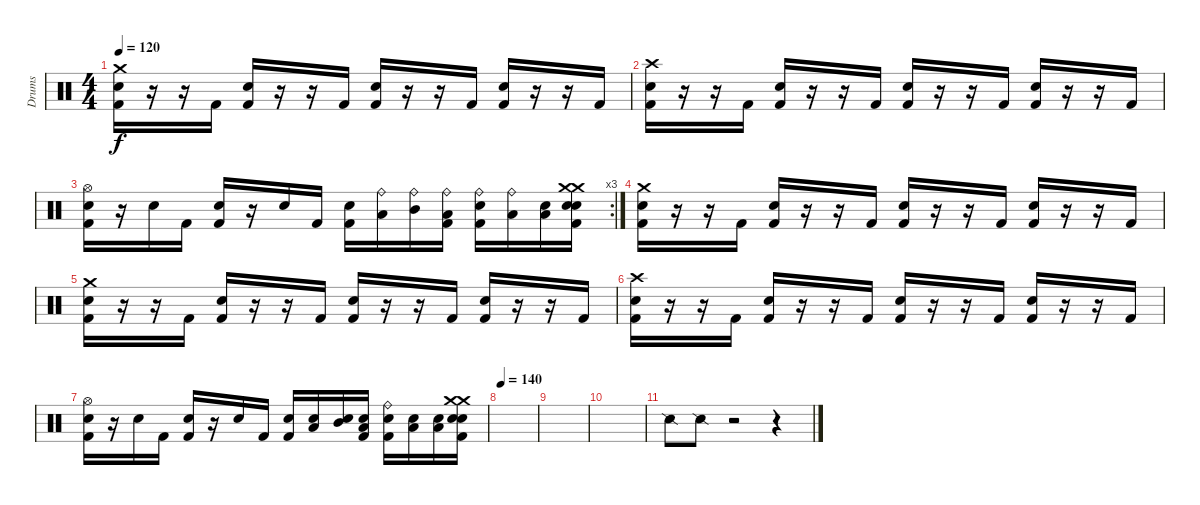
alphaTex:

\track ("Drums" "Drums") {instrument percussion}
\staff {score}
\articulation defaults
\ts (4 4)
\tempo 120
\clef neutral
\ks c
("Crash medium (hit)" "Electric Snare (hit)" "Kick (hit) 2").16{dy f} r.16 r.16 "Kick (hit) 2".16 ("Electric Snare (hit)" "Kick (hit) 2").16 r.16 r.16 "Kick (hit) 2".16 ("Electric Snare (hit)" "Kick (hit) 2").16 r.16 r.16 "Kick (hit) 2".16 ("Electric Snare (hit)" "Kick (hit) 2").16 r.16 r.16 "Kick (hit) 2".16 |
("Crash high (hit)" "Electric Snare (hit)" "Kick (hit) 2").16 r.16 r.16 "Kick (hit) 2".16 ("Electric Snare (hit)" "Kick (hit) 2").16 r.16 r.16 "Kick (hit) 2".16 ("Electric Snare (hit)" "Kick (hit) 2").16 r.16 r.16 "Kick (hit) 2".16 ("Electric Snare (hit)" "Kick (hit) 2").16 r.16 r.16 "Kick (hit) 2".16 |
\rc 3
("Hi-Hat (open)" "Electric Snare (hit)" "Kick (hit) 2").16 r.16 "Electric Snare (hit)".16 "Kick (hit) 2".16 ("Electric Snare (hit)" "Kick (hit) 2").16 r.16 "Electric Snare (hit)".16 "Kick (hit) 2".16 ("Electric Snare (hit)" "Kick (hit) 2").16 ("Ride (bell)" "Low Tom (hit)").16 ("Ride (bell)" "Mid Tom (hit)").16 ("Ride (bell)" "Low Floor Tom (hit)" "Kick (hit) 2").16 ("Ride (bell)" "Electric Snare (hit)" "Kick (hit) 2").16 ("Low Tom (hit)" "Ride (bell)").16 ("Low Tom (hit)" "Electric Snare (hit)").16 ("Crash medium (hit)" "Crash medium (hit)" "Electric Snare (hit)" "Electric Snare (hit)" "Kick (hit) 2").16 |
("Crash medium (hit)" "Electric Snare (hit)" "Kick (hit) 2").16 r.16 r.16 "Kick (hit) 2".16 ("Electric Snare (hit)" "Kick (hit) 2").16 r.16 r.16 "Kick (hit) 2".16 ("Electric Snare (hit)" "Kick (hit) 2").16 r.16 r.16 "Kick (hit) 2".16 ("Electric Snare (hit)" "Kick (hit) 2").16 r.16 r.16 "Kick (hit) 2".16 |
("Crash medium (hit)" "Electric Snare (hit)" "Kick (hit) 2").16 r.16 r.16 "Kick (hit) 2".16 ("Electric Snare (hit)" "Kick (hit) 2").16 r.16 r.16 "Kick (hit) 2".16 ("Electric Snare (hit)" "Kick (hit) 2").16 r.16 r.16 "Kick (hit) 2".16 ("Electric Snare (hit)" "Kick (hit) 2").16 r.16 r.16 "Kick (hit) 2".16 |
("Crash high (hit)" "Electric Snare (hit)" "Kick (hit) 2").16 r.16 r.16 "Kick (hit) 2".16 ("Electric Snare (hit)" "Kick (hit) 2").16 r.16 r.16 "Kick (hit) 2".16 ("Electric Snare (hit)" "Kick (hit) 2").16 r.16 r.16 "Kick (hit) 2".16 ("Electric Snare (hit)" "Kick (hit) 2").16 r.16 r.16 "Kick (hit) 2".16 |
("Hi-Hat (open)" "Electric Snare (hit)" "Kick (hit) 2").16 r.16 "Electric Snare (hit)".16 "Kick (hit) 2".16 ("Electric Snare (hit)" "Kick (hit) 2").16 r.16 "Electric Snare (hit)".16 "Kick (hit) 2".16 ("Electric Snare (hit)" "Kick (hit) 2").16 ("Low Tom (hit)" "Electric Snare (hit)").16 ("Mid Tom (hit)" "Electric Snare (hit)").16 ("Low Floor Tom (hit)" "Electric Snare (hit)" "Kick (hit) 2").16 ("Ride (bell)" "Electric Snare (hit)" "Kick (hit) 2").16 ("Low Tom (hit)" "Electric Snare (hit)").16 ("Low Tom (hit)" "Electric Snare (hit)").16 ("Crash medium (hit)" "Crash medium (hit)" "Electric Snare (hit)" "Electric Snare (hit)" "Kick (hit) 2").16 |
\tempo 140
|
|
|
"Snare (side stick) 2".8 "Snare (side stick) 2".8 r.2 r.4
